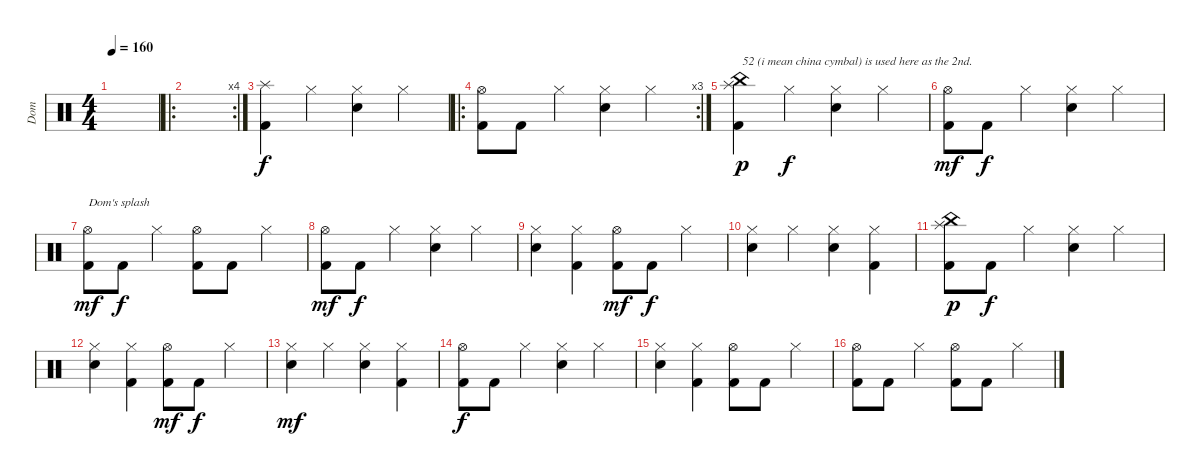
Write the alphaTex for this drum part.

\track ("Dom" "Dom") {instrument percussion}
\staff {score}
\articulation defaults
\ts (4 4)
\tempo 160
\clef neutral
\ks c
|
\ro
\rc 4
|
("Splash (hit)" "Kick (hit) 2").4 "Hi-Hat (closed)".4 ("Hi-Hat (closed)" "Snare (hit) 2").4 "Hi-Hat (closed)".4 |
\ro
\rc 3
("Hi-Hat (open)" "Kick (hit) 2").8 "Kick (hit) 2".8 "Hi-Hat (closed)".4 ("Hi-Hat (closed)" "Snare (hit) 2").4 "Hi-Hat (closed)".4 |
("Splash (hit)" "Kick (hit) 2" "China (hit)").4{txt "52 (i mean china cymbal) is used here as the 2nd." dy p} "Hi-Hat (closed)".4{dy f} ("Hi-Hat (closed)" "Snare (hit) 2").4 "Hi-Hat (closed)".4 |
("Hi-Hat (open)" "Kick (hit) 2").8{dy mf} "Kick (hit) 2".8{dy f} "Hi-Hat (closed)".4 ("Hi-Hat (closed)" "Snare (hit) 2").4 "Hi-Hat (closed)".4 |
("Hi-Hat (open)" "Kick (hit) 2").8{txt "Dom's splash" dy mf} "Kick (hit) 2".8{dy f} "Hi-Hat (closed)".4 ("Hi-Hat (open)" "Kick (hit) 2").8 "Kick (hit) 2".8 "Hi-Hat (closed)".4 |
("Hi-Hat (open)" "Kick (hit) 2").8{dy mf} "Kick (hit) 2".8{dy f} "Hi-Hat (closed)".4 ("Hi-Hat (closed)" "Snare (hit) 2").4 "Hi-Hat (closed)".4 |
("Hi-Hat (closed)" "Snare (hit) 2").4 ("Hi-Hat (closed)" "Kick (hit) 2").4 ("Hi-Hat (open)" "Kick (hit) 2").8{dy mf} "Kick (hit) 2".8{dy f} "Hi-Hat (closed)".4 |
("Hi-Hat (closed)" "Snare (hit) 2").4 "Hi-Hat (closed)".4 ("Hi-Hat (closed)" "Snare (hit) 2").4 ("Hi-Hat (closed)" "Kick (hit) 2").4 |
("Splash (hit)" "Kick (hit) 2" "China (hit)").8{dy p} "Kick (hit) 2".8{dy f} "Hi-Hat (closed)".4 ("Hi-Hat (closed)" "Snare (hit) 2").4 "Hi-Hat (closed)".4 |
("Hi-Hat (closed)" "Snare (hit) 2").4 ("Hi-Hat (closed)" "Kick (hit) 2").4 ("Hi-Hat (open)" "Kick (hit) 2").8{dy mf} "Kick (hit) 2".8{dy f} "Hi-Hat (closed)".4 |
("Hi-Hat (closed)" "Snare (hit) 2").4{dy mf} "Hi-Hat (closed)".4 ("Hi-Hat (closed)" "Snare (hit) 2").4 ("Hi-Hat (closed)" "Kick (hit) 2").4 |
("Hi-Hat (open)" "Kick (hit) 2").8{dy f} "Kick (hit) 2".8 "Hi-Hat (closed)".4 ("Hi-Hat (closed)" "Snare (hit) 2").4 "Hi-Hat (closed)".4 |
("Hi-Hat (closed)" "Snare (hit) 2").4 ("Hi-Hat (closed)" "Kick (hit) 2").4 ("Hi-Hat (open)" "Kick (hit) 2").8 "Kick (hit) 2".8 "Hi-Hat (closed)".4 |
("Hi-Hat (open)" "Kick (hit) 2").8 "Kick (hit) 2".8 "Hi-Hat (closed)".4 ("Hi-Hat (open)" "Kick (hit) 2").8 "Kick (hit) 2".8 "Hi-Hat (closed)".4
